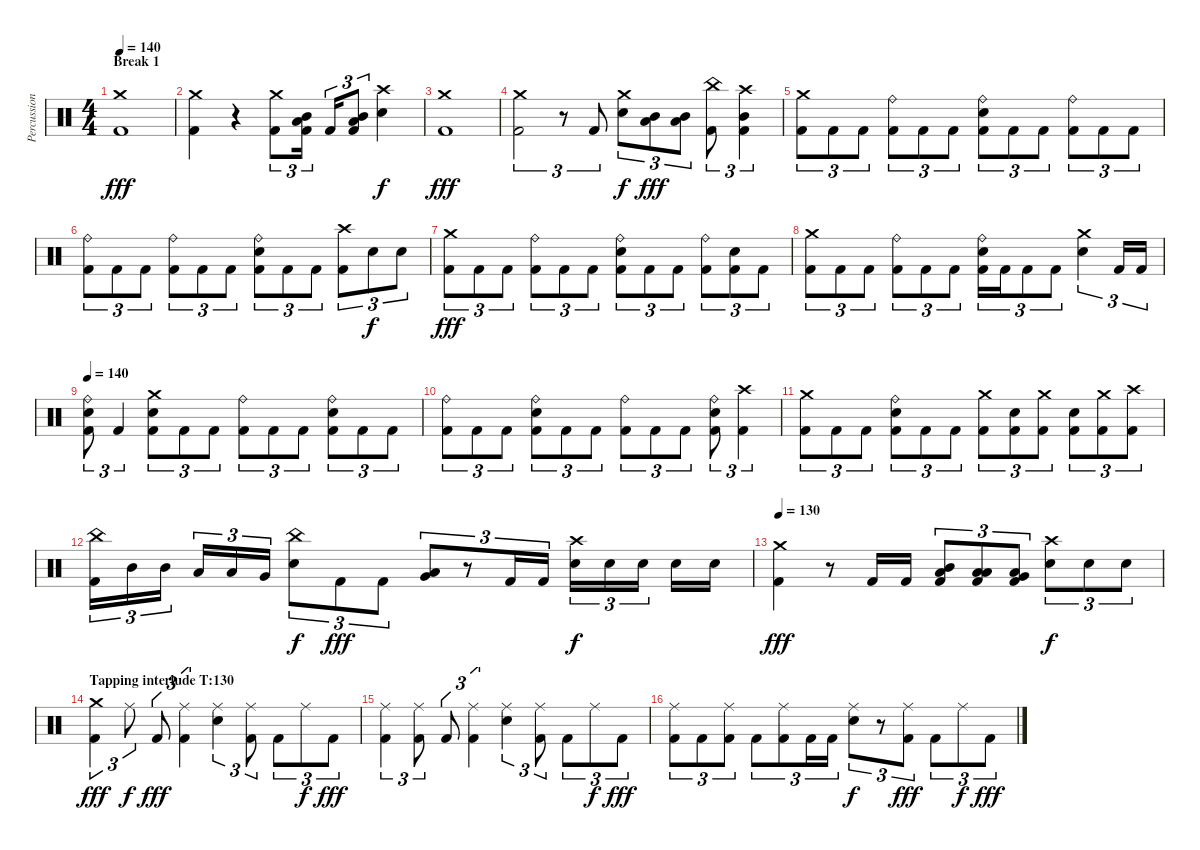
\track ("Percussion" "Percussion") {instrument percussion}
\staff {score}
\articulation defaults
\ts (4 4)
\section ("" "Break 1")
\tempo 140
\clef neutral
\ks c
("Crash medium (hit)" "Kick (hit) 2").1{dy fff} |
("Crash medium (hit)" "Kick (hit) 2").4 r.4 ("Crash medium (hit)" "Kick (hit) 2").8{tu (3 2)} ("Mid Tom (hit)" "Low Tom (hit)" "Kick (hit) 2").16{tu (3 2)} "Kick (hit) 2".16{tu (3 2)} ("Mid Tom (hit)" "Low Tom (hit)" "Kick (hit) 2").8{tu (3 2)} ("Crash high (hit)" "Electric Snare (hit)").4{dy f} |
("Crash medium (hit)" "Kick (hit) 2").1{dy fff} |
("Crash medium (hit)" "Kick (hit) 2").2{tu (3 2)} r.8{tu (3 2)} "Kick (hit) 2".8{tu (3 2)} ("Crash medium (hit)" "Electric Snare (hit)").8{tu (3 2) dy f} ("Mid Tom (hit)" "Low Tom (hit)").8{tu (3 2) dy fff} ("Mid Tom (hit)" "Low Tom (hit)").8{tu (3 2)} ("China (hit)" "Kick (hit) 2").8{tu (3 2)} ("Crash high (hit)" "Mid Tom (hit)" "Kick (hit) 2").4{tu (3 2)} |
("Crash medium (hit)" "Kick (hit) 2").8{tu (3 2)} "Kick (hit) 2".8{tu (3 2)} "Kick (hit) 2".8{tu (3 2)} ("Ride (bell)" "Kick (hit) 2").8{tu (3 2)} "Kick (hit) 2".8{tu (3 2)} "Kick (hit) 2".8{tu (3 2)} ("Ride (bell)" "Electric Snare (hit)" "Kick (hit) 2").8{tu (3 2)} "Kick (hit) 2".8{tu (3 2)} "Kick (hit) 2".8{tu (3 2)} ("Ride (bell)" "Kick (hit) 2").8{tu (3 2)} "Kick (hit) 2".8{tu (3 2)} "Kick (hit) 2".8{tu (3 2)} |
("Ride (bell)" "Kick (hit) 2").8{tu (3 2)} "Kick (hit) 2".8{tu (3 2)} "Kick (hit) 2".8{tu (3 2)} ("Ride (bell)" "Kick (hit) 2").8{tu (3 2)} "Kick (hit) 2".8{tu (3 2)} "Kick (hit) 2".8{tu (3 2)} ("Ride (bell)" "Electric Snare (hit)" "Kick (hit) 2").8{tu (3 2)} "Kick (hit) 2".8{tu (3 2)} "Kick (hit) 2".8{tu (3 2)} ("Crash high (hit)" "Kick (hit) 2").8{tu (3 2)} "Electric Snare (hit)".8{tu (3 2) dy f} "Electric Snare (hit)".8{tu (3 2)} |
("Crash medium (hit)" "Kick (hit) 2").8{tu (3 2) dy fff} "Kick (hit) 2".8{tu (3 2)} "Kick (hit) 2".8{tu (3 2)} ("Ride (bell)" "Kick (hit) 2").8{tu (3 2)} "Kick (hit) 2".8{tu (3 2)} "Kick (hit) 2".8{tu (3 2)} ("Ride (bell)" "Electric Snare (hit)" "Kick (hit) 2").8{tu (3 2)} "Kick (hit) 2".8{tu (3 2)} "Kick (hit) 2".8{tu (3 2)} ("Ride (bell)" "Kick (hit) 2").8{tu (3 2)} ("Electric Snare (hit)" "Kick (hit) 2").8{tu (3 2)} "Kick (hit) 2".8{tu (3 2)} |
("Crash medium (hit)" "Kick (hit) 2").8{tu (3 2)} "Kick (hit) 2".8{tu (3 2)} "Kick (hit) 2".8{tu (3 2)} ("Ride (bell)" "Kick (hit) 2").8{tu (3 2)} "Kick (hit) 2".8{tu (3 2)} "Kick (hit) 2".8{tu (3 2)} ("Ride (bell)" "Electric Snare (hit)" "Kick (hit) 2").16{tu (3 2)} "Kick (hit) 2".16{tu (3 2)} "Kick (hit) 2".8{tu (3 2)} "Kick (hit) 2".8{tu (3 2)} ("Electric Snare (hit)" "Crash medium (hit)").4{tu (3 2)} "Kick (hit) 2".16{tu (3 2)} "Kick (hit) 2".16{tu (3 2)} |
\tempo 140
("Ride (bell)" "Electric Snare (hit)" "Kick (hit) 2").8{tu (3 2)} "Kick (hit) 2".4{tu (3 2)} ("Crash medium (hit)" "Electric Snare (hit)" "Kick (hit) 2").8{tu (3 2)} "Kick (hit) 2".8{tu (3 2)} "Kick (hit) 2".8{tu (3 2)} ("Ride (bell)" "Kick (hit) 2").8{tu (3 2)} "Kick (hit) 2".8{tu (3 2)} "Kick (hit) 2".8{tu (3 2)} ("Ride (bell)" "Electric Snare (hit)" "Kick (hit) 2").8{tu (3 2)} "Kick (hit) 2".8{tu (3 2)} "Kick (hit) 2".8{tu (3 2)} |
("Ride (bell)" "Kick (hit) 2").8{tu (3 2)} "Kick (hit) 2".8{tu (3 2)} "Kick (hit) 2".8{tu (3 2)} ("Ride (bell)" "Electric Snare (hit)" "Kick (hit) 2").8{tu (3 2)} "Kick (hit) 2".8{tu (3 2)} "Kick (hit) 2".8{tu (3 2)} ("Ride (bell)" "Kick (hit) 2").8{tu (3 2)} "Kick (hit) 2".8{tu (3 2)} "Kick (hit) 2".8{tu (3 2)} ("Ride (bell)" "Electric Snare (hit)" "Kick (hit) 2").8{tu (3 2)} ("Crash high (hit)" "Kick (hit) 2").4{tu (3 2)} |
("Crash medium (hit)" "Kick (hit) 2").8{tu (3 2)} "Kick (hit) 2".8{tu (3 2)} "Kick (hit) 2".8{tu (3 2)} ("Ride (bell)" "Electric Snare (hit)" "Kick (hit) 2").8{tu (3 2)} "Kick (hit) 2".8{tu (3 2)} "Kick (hit) 2".8{tu (3 2)} ("Crash medium (hit)" "Kick (hit) 2").8{tu (3 2)} ("Electric Snare (hit)" "Kick (hit) 2").8{tu (3 2)} ("Crash medium (hit)" "Kick (hit) 2").8{tu (3 2)} ("Electric Snare (hit)" "Kick (hit) 2").8{tu (3 2)} ("Crash medium (hit)" "Kick (hit) 2").8{tu (3 2)} ("Crash high (hit)" "Kick (hit) 2").8{tu (3 2)} |
("China (hit)" "Kick (hit) 2").16{tu (3 2)} "Mid Tom (hit)".16{tu (3 2)} "Mid Tom (hit)".16{tu (3 2)} "Low Tom (hit)".16{tu (3 2)} "Low Tom (hit)".16{tu (3 2)} "Very Low Tom (hit)".16{tu (3 2)} ("China (hit)" "Electric Snare (hit)").8{tu (3 2) dy f} "Kick (hit) 2".8{tu (3 2) dy fff} "Kick (hit) 2".8{tu (3 2)} ("Low Tom (hit)" "Very Low Tom (hit)").8{tu (3 2)} r.8{tu (3 2)} "Kick (hit) 2".16{tu (3 2)} "Kick (hit) 2".16{tu (3 2)} ("Crash high (hit)" "Electric Snare (hit)").16{tu (3 2) dy f} "Electric Snare (hit)".16{tu (3 2)} "Electric Snare (hit)".16{tu (3 2)} "Electric Snare (hit)".16 "Electric Snare (hit)".16 |
\tempo 130
("Crash medium (hit)" "Kick (hit) 2").4{dy fff} r.8 "Kick (hit) 2".16 "Kick (hit) 2".16 ("Mid Tom (hit)" "Low Floor Tom (hit)" "Kick (hit) 2").8{tu (3 2)} ("Low Tom (hit)" "Low Floor Tom (hit)" "Kick (hit) 2").8{tu (3 2)} ("Very Low Tom (hit)" "Low Floor Tom (hit)" "Kick (hit) 2").8{tu (3 2)} ("Crash high (hit)" "Electric Snare (hit)").8{tu (3 2) dy f} "Electric Snare (hit)".8{tu (3 2)} "Electric Snare (hit)".8{tu (3 2)} |
\section ("" "Tapping interlude T:130")
("Crash medium (hit)" "Kick (hit) 2").4{tu (3 2) dy fff} "Ride (middle)".8{tu (3 2) dy f} "Kick (hit) 2".8{tu (3 2) dy fff} ("Ride (middle)" "Kick (hit) 2").4{tu (3 2)} ("Ride (middle)" "Electric Snare (hit)").4{tu (3 2)} ("Ride (middle)" "Kick (hit) 2").8{tu (3 2)} "Kick (hit) 2".8{tu (3 2)} "Ride (middle)".8{tu (3 2) dy f} "Kick (hit) 2".8{tu (3 2) dy fff} |
("Ride (middle)" "Kick (hit) 2").4{tu (3 2)} ("Ride (middle)" "Kick (hit) 2").8{tu (3 2)} "Kick (hit) 2".8{tu (3 2)} ("Ride (middle)" "Kick (hit) 2").4{tu (3 2)} ("Ride (middle)" "Electric Snare (hit)").4{tu (3 2)} ("Ride (middle)" "Kick (hit) 2").8{tu (3 2)} "Kick (hit) 2".8{tu (3 2)} "Ride (middle)".8{tu (3 2) dy f} "Kick (hit) 2".8{tu (3 2) dy fff} |
("Ride (middle)" "Kick (hit) 2").8{tu (3 2)} "Kick (hit) 2".8{tu (3 2)} ("Ride (middle)" "Kick (hit) 2").8{tu (3 2)} "Kick (hit) 2".8{tu (3 2)} ("Ride (middle)" "Kick (hit) 2").8{tu (3 2)} "Kick (hit) 2".16{tu (3 2)} "Kick (hit) 2".16{tu (3 2)} ("Ride (middle)" "Electric Snare (hit)").8{tu (3 2) dy f} r.8{tu (3 2)} ("Ride (middle)" "Kick (hit) 2").8{tu (3 2) dy fff} "Kick (hit) 2".8{tu (3 2)} "Ride (middle)".8{tu (3 2) dy f} "Kick (hit) 2".8{tu (3 2) dy fff}
